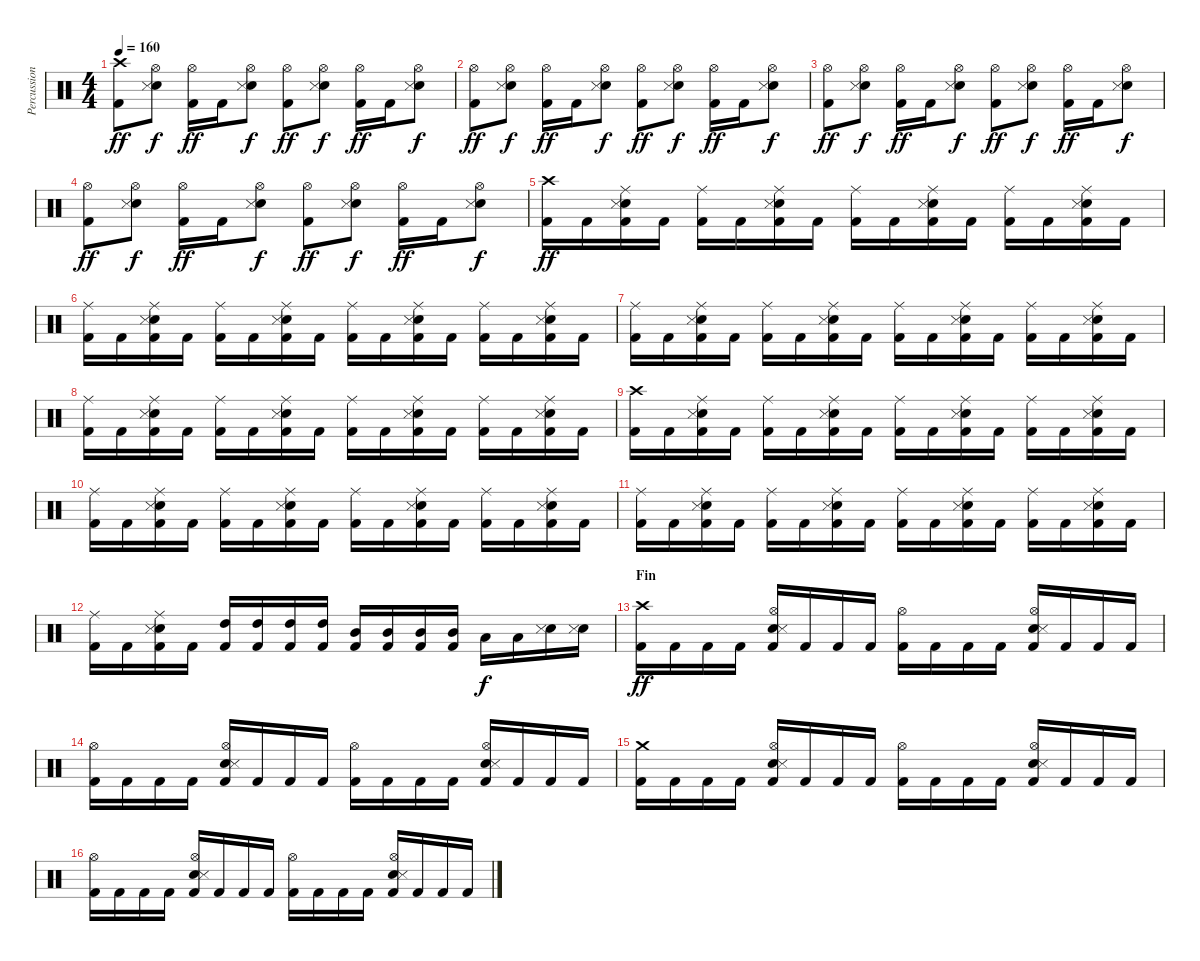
\track ("Percussions" "Percussion") {instrument percussion}
\staff {score}
\articulation defaults
\ts (4 4)
\tempo 160
\clef neutral
\ks c
("Crash high (hit)" "Kick (hit) 2").8{dy ff} ("Hi-Hat (open)" "Electric Snare (hit)" "Snare (side stick) 3").8{dy f} ("Hi-Hat (open)" "Kick (hit) 2").16{dy ff} "Kick (hit) 2".16 ("Hi-Hat (open)" "Electric Snare (hit)" "Snare (side stick) 3").8{dy f} ("Hi-Hat (open)" "Kick (hit) 2").8{dy ff} ("Hi-Hat (open)" "Electric Snare (hit)" "Snare (side stick) 3").8{dy f} ("Hi-Hat (open)" "Kick (hit) 2").16{dy ff} "Kick (hit) 2".16 ("Hi-Hat (open)" "Electric Snare (hit)" "Snare (side stick) 3").8{dy f} |
("Hi-Hat (open)" "Kick (hit) 2").8{dy ff} ("Hi-Hat (open)" "Electric Snare (hit)" "Snare (side stick) 3").8{dy f} ("Hi-Hat (open)" "Kick (hit) 2").16{dy ff} "Kick (hit) 2".16 ("Hi-Hat (open)" "Electric Snare (hit)" "Snare (side stick) 3").8{dy f} ("Hi-Hat (open)" "Kick (hit) 2").8{dy ff} ("Hi-Hat (open)" "Electric Snare (hit)" "Snare (side stick) 3").8{dy f} ("Hi-Hat (open)" "Kick (hit) 2").16{dy ff} "Kick (hit) 2".16 ("Hi-Hat (open)" "Electric Snare (hit)" "Snare (side stick) 3").8{dy f} |
("Hi-Hat (open)" "Kick (hit) 2").8{dy ff} ("Hi-Hat (open)" "Electric Snare (hit)" "Snare (side stick) 3").8{dy f} ("Hi-Hat (open)" "Kick (hit) 2").16{dy ff} "Kick (hit) 2".16 ("Hi-Hat (open)" "Electric Snare (hit)" "Snare (side stick) 3").8{dy f} ("Hi-Hat (open)" "Kick (hit) 2").8{dy ff} ("Hi-Hat (open)" "Electric Snare (hit)" "Snare (side stick) 3").8{dy f} ("Hi-Hat (open)" "Kick (hit) 2").16{dy ff} "Kick (hit) 2".16 ("Hi-Hat (open)" "Electric Snare (hit)" "Snare (side stick) 3").8{dy f} |
("Hi-Hat (open)" "Kick (hit) 2").8{dy ff} ("Hi-Hat (open)" "Electric Snare (hit)" "Snare (side stick) 3").8{dy f} ("Hi-Hat (open)" "Kick (hit) 2").16{dy ff} "Kick (hit) 2".16 ("Hi-Hat (open)" "Electric Snare (hit)" "Snare (side stick) 3").8{dy f} ("Hi-Hat (open)" "Kick (hit) 2").8{dy ff} ("Hi-Hat (open)" "Electric Snare (hit)" "Snare (side stick) 3").8{dy f} ("Hi-Hat (open)" "Kick (hit) 2").16{dy ff} "Kick (hit) 2".16 ("Hi-Hat (open)" "Electric Snare (hit)" "Snare (side stick) 3").8{dy f} |
("Crash high (hit)" "Kick (hit) 2").16{dy ff} "Kick (hit) 2".16 ("Ride (middle)" "Electric Snare (hit)" "Snare (side stick) 3" "Kick (hit) 2").16 "Kick (hit) 2".16 ("Ride (middle)" "Kick (hit) 2").16 "Kick (hit) 2".16 ("Ride (middle)" "Electric Snare (hit)" "Snare (side stick) 3" "Kick (hit) 2").16 "Kick (hit) 2".16 ("Ride (middle)" "Kick (hit) 2").16 "Kick (hit) 2".16 ("Ride (middle)" "Electric Snare (hit)" "Snare (side stick) 3" "Kick (hit) 2").16 "Kick (hit) 2".16 ("Ride (middle)" "Kick (hit) 2").16 "Kick (hit) 2".16 ("Ride (middle)" "Electric Snare (hit)" "Snare (side stick) 3" "Kick (hit) 2").16 "Kick (hit) 2".16 |
("Ride (middle)" "Kick (hit) 2").16 "Kick (hit) 2".16 ("Ride (middle)" "Electric Snare (hit)" "Snare (side stick) 3" "Kick (hit) 2").16 "Kick (hit) 2".16 ("Ride (middle)" "Kick (hit) 2").16 "Kick (hit) 2".16 ("Ride (middle)" "Electric Snare (hit)" "Snare (side stick) 3" "Kick (hit) 2").16 "Kick (hit) 2".16 ("Ride (middle)" "Kick (hit) 2").16 "Kick (hit) 2".16 ("Ride (middle)" "Electric Snare (hit)" "Snare (side stick) 3" "Kick (hit) 2").16 "Kick (hit) 2".16 ("Ride (middle)" "Kick (hit) 2").16 "Kick (hit) 2".16 ("Ride (middle)" "Electric Snare (hit)" "Snare (side stick) 3" "Kick (hit) 2").16 "Kick (hit) 2".16 |
("Ride (middle)" "Kick (hit) 2").16 "Kick (hit) 2".16 ("Ride (middle)" "Electric Snare (hit)" "Snare (side stick) 3" "Kick (hit) 2").16 "Kick (hit) 2".16 ("Ride (middle)" "Kick (hit) 2").16 "Kick (hit) 2".16 ("Ride (middle)" "Electric Snare (hit)" "Snare (side stick) 3" "Kick (hit) 2").16 "Kick (hit) 2".16 ("Ride (middle)" "Kick (hit) 2").16 "Kick (hit) 2".16 ("Ride (middle)" "Electric Snare (hit)" "Snare (side stick) 3" "Kick (hit) 2").16 "Kick (hit) 2".16 ("Ride (middle)" "Kick (hit) 2").16 "Kick (hit) 2".16 ("Ride (middle)" "Electric Snare (hit)" "Snare (side stick) 3" "Kick (hit) 2").16 "Kick (hit) 2".16 |
("Ride (middle)" "Kick (hit) 2").16 "Kick (hit) 2".16 ("Ride (middle)" "Electric Snare (hit)" "Snare (side stick) 3" "Kick (hit) 2").16 "Kick (hit) 2".16 ("Ride (middle)" "Kick (hit) 2").16 "Kick (hit) 2".16 ("Ride (middle)" "Electric Snare (hit)" "Snare (side stick) 3" "Kick (hit) 2").16 "Kick (hit) 2".16 ("Ride (middle)" "Kick (hit) 2").16 "Kick (hit) 2".16 ("Ride (middle)" "Electric Snare (hit)" "Snare (side stick) 3" "Kick (hit) 2").16 "Kick (hit) 2".16 ("Ride (middle)" "Kick (hit) 2").16 "Kick (hit) 2".16 ("Ride (middle)" "Electric Snare (hit)" "Snare (side stick) 3" "Kick (hit) 2").16 "Kick (hit) 2".16 |
("Crash high (hit)" "Kick (hit) 2").16 "Kick (hit) 2".16 ("Ride (middle)" "Electric Snare (hit)" "Snare (side stick) 3" "Kick (hit) 2").16 "Kick (hit) 2".16 ("Ride (middle)" "Kick (hit) 2").16 "Kick (hit) 2".16 ("Ride (middle)" "Electric Snare (hit)" "Snare (side stick) 3" "Kick (hit) 2").16 "Kick (hit) 2".16 ("Ride (middle)" "Kick (hit) 2").16 "Kick (hit) 2".16 ("Ride (middle)" "Electric Snare (hit)" "Snare (side stick) 3" "Kick (hit) 2").16 "Kick (hit) 2".16 ("Ride (middle)" "Kick (hit) 2").16 "Kick (hit) 2".16 ("Ride (middle)" "Electric Snare (hit)" "Snare (side stick) 3" "Kick (hit) 2").16 "Kick (hit) 2".16 |
("Ride (middle)" "Kick (hit) 2").16 "Kick (hit) 2".16 ("Ride (middle)" "Electric Snare (hit)" "Snare (side stick) 3" "Kick (hit) 2").16 "Kick (hit) 2".16 ("Ride (middle)" "Kick (hit) 2").16 "Kick (hit) 2".16 ("Ride (middle)" "Electric Snare (hit)" "Snare (side stick) 3" "Kick (hit) 2").16 "Kick (hit) 2".16 ("Ride (middle)" "Kick (hit) 2").16 "Kick (hit) 2".16 ("Ride (middle)" "Electric Snare (hit)" "Snare (side stick) 3" "Kick (hit) 2").16 "Kick (hit) 2".16 ("Ride (middle)" "Kick (hit) 2").16 "Kick (hit) 2".16 ("Ride (middle)" "Electric Snare (hit)" "Snare (side stick) 3" "Kick (hit) 2").16 "Kick (hit) 2".16 |
("Ride (middle)" "Kick (hit) 2").16 "Kick (hit) 2".16 ("Ride (middle)" "Electric Snare (hit)" "Snare (side stick) 3" "Kick (hit) 2").16 "Kick (hit) 2".16 ("Ride (middle)" "Kick (hit) 2").16 "Kick (hit) 2".16 ("Ride (middle)" "Electric Snare (hit)" "Snare (side stick) 3" "Kick (hit) 2").16 "Kick (hit) 2".16 ("Ride (middle)" "Kick (hit) 2").16 "Kick (hit) 2".16 ("Ride (middle)" "Electric Snare (hit)" "Snare (side stick) 3" "Kick (hit) 2").16 "Kick (hit) 2".16 ("Ride (middle)" "Kick (hit) 2").16 "Kick (hit) 2".16 ("Ride (middle)" "Electric Snare (hit)" "Snare (side stick) 3" "Kick (hit) 2").16 "Kick (hit) 2".16 |
("Ride (middle)" "Kick (hit) 2").16 "Kick (hit) 2".16 ("Ride (middle)" "Electric Snare (hit)" "Snare (side stick) 3" "Kick (hit) 2").16 "Kick (hit) 2".16 ("High Tom (hit)" "Kick (hit) 2").16 ("High Tom (hit)" "Kick (hit) 2").16 ("High Tom (hit)" "Kick (hit) 2").16 ("High Tom (hit)" "Kick (hit) 2").16 ("Mid Tom (hit)" "Kick (hit) 2").16 ("Mid Tom (hit)" "Kick (hit) 2").16 ("Mid Tom (hit)" "Kick (hit) 2").16 ("Mid Tom (hit)" "Kick (hit) 2").16 "Low Tom (hit)".16{dy f} "Low Tom (hit)".16 ("Electric Snare (hit)" "Snare (side stick) 3").16 ("Electric Snare (hit)" "Snare (side stick) 3").16 |
\section ("" "Fin")
("Crash high (hit)" "Kick (hit) 2").16{dy ff} "Kick (hit) 2".16 "Kick (hit) 2".16 "Kick (hit) 2".16 ("Hi-Hat (open)" "Electric Snare (hit)" "Snare (side stick) 3" "Kick (hit) 2").16 "Kick (hit) 2".16 "Kick (hit) 2".16 "Kick (hit) 2".16 ("Hi-Hat (open)" "Kick (hit) 2").16 "Kick (hit) 2".16 "Kick (hit) 2".16 "Kick (hit) 2".16 ("Hi-Hat (open)" "Electric Snare (hit)" "Snare (side stick) 3" "Kick (hit) 2").16 "Kick (hit) 2".16 "Kick (hit) 2".16 "Kick (hit) 2".16 |
("Hi-Hat (open)" "Kick (hit) 2").16 "Kick (hit) 2".16 "Kick (hit) 2".16 "Kick (hit) 2".16 ("Hi-Hat (open)" "Electric Snare (hit)" "Snare (side stick) 3" "Kick (hit) 2").16 "Kick (hit) 2".16 "Kick (hit) 2".16 "Kick (hit) 2".16 ("Hi-Hat (open)" "Kick (hit) 2").16 "Kick (hit) 2".16 "Kick (hit) 2".16 "Kick (hit) 2".16 ("Hi-Hat (open)" "Electric Snare (hit)" "Snare (side stick) 3" "Kick (hit) 2").16 "Kick (hit) 2".16 "Kick (hit) 2".16 "Kick (hit) 2".16 |
("Crash medium (hit)" "Kick (hit) 2").16 "Kick (hit) 2".16 "Kick (hit) 2".16 "Kick (hit) 2".16 ("Hi-Hat (open)" "Electric Snare (hit)" "Snare (side stick) 3" "Kick (hit) 2").16 "Kick (hit) 2".16 "Kick (hit) 2".16 "Kick (hit) 2".16 ("Hi-Hat (open)" "Kick (hit) 2").16 "Kick (hit) 2".16 "Kick (hit) 2".16 "Kick (hit) 2".16 ("Hi-Hat (open)" "Electric Snare (hit)" "Snare (side stick) 3" "Kick (hit) 2").16 "Kick (hit) 2".16 "Kick (hit) 2".16 "Kick (hit) 2".16 |
("Hi-Hat (open)" "Kick (hit) 2").16 "Kick (hit) 2".16 "Kick (hit) 2".16 "Kick (hit) 2".16 ("Hi-Hat (open)" "Electric Snare (hit)" "Snare (side stick) 3" "Kick (hit) 2").16 "Kick (hit) 2".16 "Kick (hit) 2".16 "Kick (hit) 2".16 ("Hi-Hat (open)" "Kick (hit) 2").16 "Kick (hit) 2".16 "Kick (hit) 2".16 "Kick (hit) 2".16 ("Hi-Hat (open)" "Electric Snare (hit)" "Snare (side stick) 3" "Kick (hit) 2").16 "Kick (hit) 2".16 "Kick (hit) 2".16 "Kick (hit) 2".16
